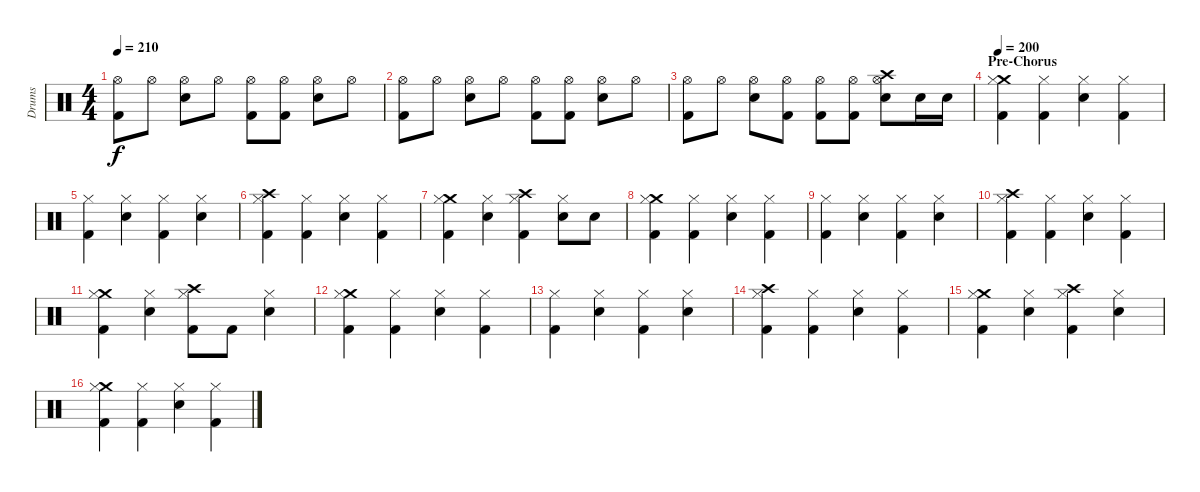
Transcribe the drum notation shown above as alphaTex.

\track ("Drums" "Drums") {instrument percussion}
\staff {score}
\articulation defaults
\ts (4 4)
\tempo 210
\clef neutral
\ks c
("Hi-Hat (open)" "Kick (hit) 2").8{dy f} "Hi-Hat (open)".8 ("Hi-Hat (open)" "Electric Snare (hit)").8 "Hi-Hat (open)".8 ("Hi-Hat (open)" "Kick (hit) 2").8 ("Hi-Hat (open)" "Kick (hit) 2").8 ("Hi-Hat (open)" "Electric Snare (hit)").8 "Hi-Hat (open)".8 |
("Hi-Hat (open)" "Kick (hit) 2").8 "Hi-Hat (open)".8 ("Hi-Hat (open)" "Electric Snare (hit)").8 "Hi-Hat (open)".8 ("Hi-Hat (open)" "Kick (hit) 2").8 ("Hi-Hat (open)" "Kick (hit) 2").8 ("Hi-Hat (open)" "Electric Snare (hit)").8 "Hi-Hat (open)".8 |
("Hi-Hat (open)" "Kick (hit) 2").8 "Hi-Hat (open)".8 ("Hi-Hat (open)" "Electric Snare (hit)").8 ("Hi-Hat (open)" "Kick (hit) 2").8 ("Hi-Hat (open)" "Kick (hit) 2").8 ("Hi-Hat (open)" "Kick (hit) 2").8 ("Hi-Hat (open)" "Crash high (hit)" "Electric Snare (hit)").8 "Electric Snare (hit)".16 "Electric Snare (hit)".16 |
\section ("" "Pre-Chorus")
\tempo 200
("Crash medium (hit)" "Hi-Hat (closed)" "Kick (hit) 2").4 ("Hi-Hat (closed)" "Kick (hit) 2").4 ("Hi-Hat (closed)" "Electric Snare (hit)").4 ("Hi-Hat (closed)" "Kick (hit) 2").4 |
("Hi-Hat (closed)" "Kick (hit) 2").4 ("Hi-Hat (closed)" "Electric Snare (hit)").4 ("Hi-Hat (closed)" "Kick (hit) 2").4 ("Hi-Hat (closed)" "Electric Snare (hit)").4 |
("Crash high (hit)" "Hi-Hat (closed)" "Kick (hit) 2").4 ("Hi-Hat (closed)" "Kick (hit) 2").4 ("Hi-Hat (closed)" "Electric Snare (hit)").4 ("Hi-Hat (closed)" "Kick (hit) 2").4 |
("Crash medium (hit)" "Hi-Hat (closed)" "Kick (hit) 2").4 ("Hi-Hat (closed)" "Electric Snare (hit)").4 ("Crash high (hit)" "Hi-Hat (closed)" "Kick (hit) 2").4 ("Hi-Hat (closed)" "Electric Snare (hit)").8 "Electric Snare (hit)".8 |
("Crash medium (hit)" "Hi-Hat (closed)" "Kick (hit) 2").4 ("Hi-Hat (closed)" "Kick (hit) 2").4 ("Hi-Hat (closed)" "Electric Snare (hit)").4 ("Hi-Hat (closed)" "Kick (hit) 2").4 |
("Hi-Hat (closed)" "Kick (hit) 2").4 ("Hi-Hat (closed)" "Electric Snare (hit)").4 ("Hi-Hat (closed)" "Kick (hit) 2").4 ("Hi-Hat (closed)" "Electric Snare (hit)").4 |
("Crash high (hit)" "Hi-Hat (closed)" "Kick (hit) 2").4 ("Hi-Hat (closed)" "Kick (hit) 2").4 ("Hi-Hat (closed)" "Electric Snare (hit)").4 ("Hi-Hat (closed)" "Kick (hit) 2").4 |
("Crash medium (hit)" "Hi-Hat (closed)" "Kick (hit) 2").4 ("Hi-Hat (closed)" "Electric Snare (hit)").4 ("Crash high (hit)" "Hi-Hat (closed)" "Kick (hit) 2").8 "Kick (hit) 2".8 ("Hi-Hat (closed)" "Electric Snare (hit)").4 |
("Crash medium (hit)" "Hi-Hat (closed)" "Kick (hit) 2").4 ("Hi-Hat (closed)" "Kick (hit) 2").4 ("Hi-Hat (closed)" "Electric Snare (hit)").4 ("Hi-Hat (closed)" "Kick (hit) 2").4 |
("Hi-Hat (closed)" "Kick (hit) 2").4 ("Hi-Hat (closed)" "Electric Snare (hit)").4 ("Hi-Hat (closed)" "Kick (hit) 2").4 ("Hi-Hat (closed)" "Electric Snare (hit)").4 |
("Crash high (hit)" "Hi-Hat (closed)" "Kick (hit) 2").4 ("Hi-Hat (closed)" "Kick (hit) 2").4 ("Hi-Hat (closed)" "Electric Snare (hit)").4 ("Hi-Hat (closed)" "Kick (hit) 2").4 |
("Crash medium (hit)" "Hi-Hat (closed)" "Kick (hit) 2").4 ("Hi-Hat (closed)" "Electric Snare (hit)").4 ("Crash high (hit)" "Hi-Hat (closed)" "Kick (hit) 2").4 ("Hi-Hat (closed)" "Electric Snare (hit)").4 |
("Crash medium (hit)" "Hi-Hat (closed)" "Kick (hit) 2").4 ("Hi-Hat (closed)" "Kick (hit) 2").4 ("Hi-Hat (closed)" "Electric Snare (hit)").4 ("Hi-Hat (closed)" "Kick (hit) 2").4
